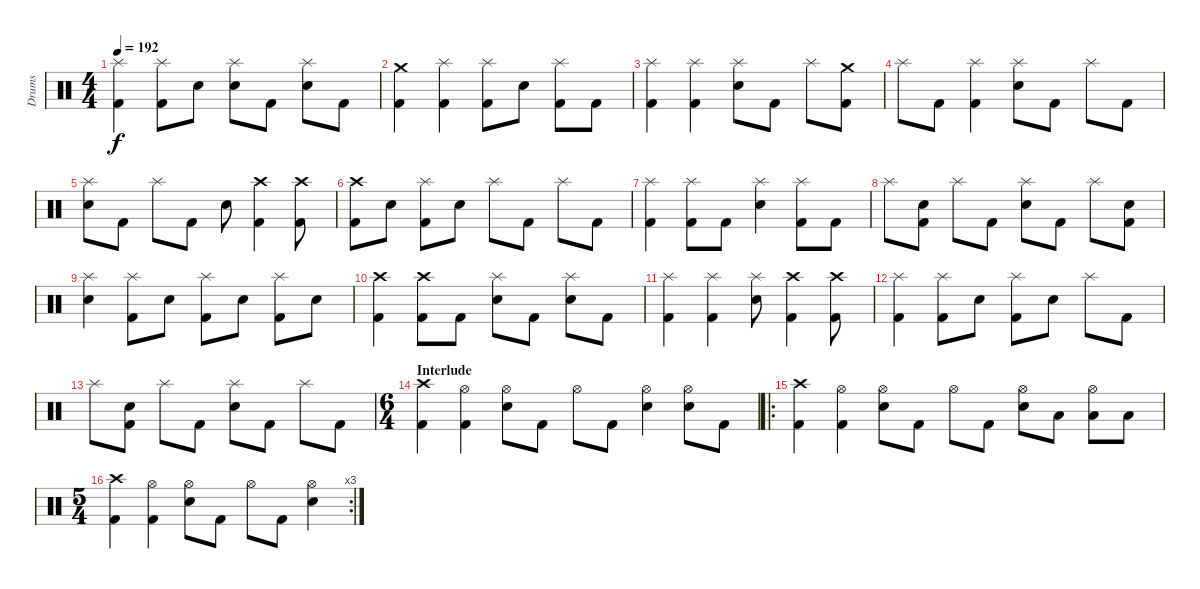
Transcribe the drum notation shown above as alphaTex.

\track ("Drums" "Drums") {instrument percussion}
\staff {score}
\articulation defaults
\ts (4 4)
\tempo 192
\clef neutral
\ks c
("Splash (hit)" "Kick (hit) 2").4{dy f} ("Splash (hit)" "Kick (hit) 2").8 "Electric Snare (hit)".8 ("Splash (hit)" "Electric Snare (hit)").8 "Kick (hit) 2".8 ("Splash (hit)" "Electric Snare (hit)").8 "Kick (hit) 2".8 |
("Crash medium (hit)" "Kick (hit) 2").4 ("Splash (hit)" "Kick (hit) 2").4 ("Splash (hit)" "Kick (hit) 2").8 "Electric Snare (hit)".8 ("Splash (hit)" "Kick (hit) 2").8 "Kick (hit) 2".8 |
("Splash (hit)" "Kick (hit) 2").4 ("Splash (hit)" "Kick (hit) 2").4 ("Splash (hit)" "Electric Snare (hit)").8 "Kick (hit) 2".8 "Splash (hit)".8 ("Crash medium (hit)" "Kick (hit) 2").8 |
"Splash (hit)".8 "Kick (hit) 2".8 ("Splash (hit)" "Kick (hit) 2").4 ("Splash (hit)" "Electric Snare (hit)").8 "Kick (hit) 2".8 "Splash (hit)".8 "Kick (hit) 2".8 |
("Splash (hit)" "Electric Snare (hit)").8 "Kick (hit) 2".8 "Splash (hit)".8 "Kick (hit) 2".8 "Electric Snare (hit)".8 ("Crash high (hit)" "Kick (hit) 2").4 ("Crash high (hit)" "Kick (hit) 2").8 |
("Crash high (hit)" "Kick (hit) 2").8 "Electric Snare (hit)".8 ("Splash (hit)" "Kick (hit) 2").8 "Electric Snare (hit)".8 "Splash (hit)".8 "Kick (hit) 2".8 "Splash (hit)".8 "Kick (hit) 2".8 |
("Splash (hit)" "Kick (hit) 2").4 ("Splash (hit)" "Kick (hit) 2").8 "Kick (hit) 2".8 ("Splash (hit)" "Electric Snare (hit)").4 ("Splash (hit)" "Kick (hit) 2").8 "Kick (hit) 2".8 |
"Splash (hit)".8 ("Electric Snare (hit)" "Kick (hit) 2").8 "Splash (hit)".8 "Kick (hit) 2".8 ("Splash (hit)" "Electric Snare (hit)").8 "Kick (hit) 2".8 "Splash (hit)".8 ("Electric Snare (hit)" "Kick (hit) 2").8 |
("Splash (hit)" "Electric Snare (hit)").4 ("Splash (hit)" "Kick (hit) 2").8 "Electric Snare (hit)".8 ("Splash (hit)" "Kick (hit) 2").8 "Electric Snare (hit)".8 ("Splash (hit)" "Kick (hit) 2").8 "Electric Snare (hit)".8 |
("Crash high (hit)" "Kick (hit) 2").4 ("Crash high (hit)" "Kick (hit) 2").8 "Kick (hit) 2".8 ("Splash (hit)" "Electric Snare (hit)").8 "Kick (hit) 2".8 ("Splash (hit)" "Electric Snare (hit)").8 "Kick (hit) 2".8 |
("Splash (hit)" "Kick (hit) 2").4 ("Splash (hit)" "Kick (hit) 2").4 ("Splash (hit)" "Electric Snare (hit)").8 ("Crash high (hit)" "Kick (hit) 2").4 ("Crash high (hit)" "Kick (hit) 2").8 |
("Splash (hit)" "Kick (hit) 2").4 ("Splash (hit)" "Kick (hit) 2").8 "Electric Snare (hit)".8 ("Splash (hit)" "Kick (hit) 2").8 "Electric Snare (hit)".8 "Splash (hit)".8 "Kick (hit) 2".8 |
"Splash (hit)".8 ("Electric Snare (hit)" "Kick (hit) 2").8 "Splash (hit)".8 "Kick (hit) 2".8 ("Splash (hit)" "Electric Snare (hit)").8 "Kick (hit) 2".8 "Splash (hit)".8 "Kick (hit) 2".8 |
\ts (6 4)
\section ("" "Interlude")
("Crash high (hit)" "Kick (hit) 2").4 ("Hi-Hat (open)" "Kick (hit) 2").4 ("Hi-Hat (open)" "Snare (hit) 2").8 "Kick (hit) 2".8 "Hi-Hat (open)".8 "Kick (hit) 2".8 ("Hi-Hat (open)" "Snare (hit) 2").4 ("Hi-Hat (open)" "Snare (hit) 2").8 "Kick (hit) 2".8 |
\ro
("Crash high (hit)" "Kick (hit) 2").4 ("Hi-Hat (open)" "Kick (hit) 2").4 ("Hi-Hat (open)" "Snare (hit) 2").8 "Kick (hit) 2".8 "Hi-Hat (open)".8 "Kick (hit) 2".8 ("Hi-Hat (open)" "Snare (hit) 2").8 "Low Tom (hit)".8 ("Hi-Hat (open)" "Low Tom (hit)").8 "Low Tom (hit)".8 |
\rc 3
\ts (5 4)
("Crash high (hit)" "Kick (hit) 2").4 ("Hi-Hat (open)" "Kick (hit) 2").4 ("Hi-Hat (open)" "Snare (hit) 2").8 "Kick (hit) 2".8 "Hi-Hat (open)".8 "Kick (hit) 2".8 ("Hi-Hat (open)" "Snare (hit) 2").4
